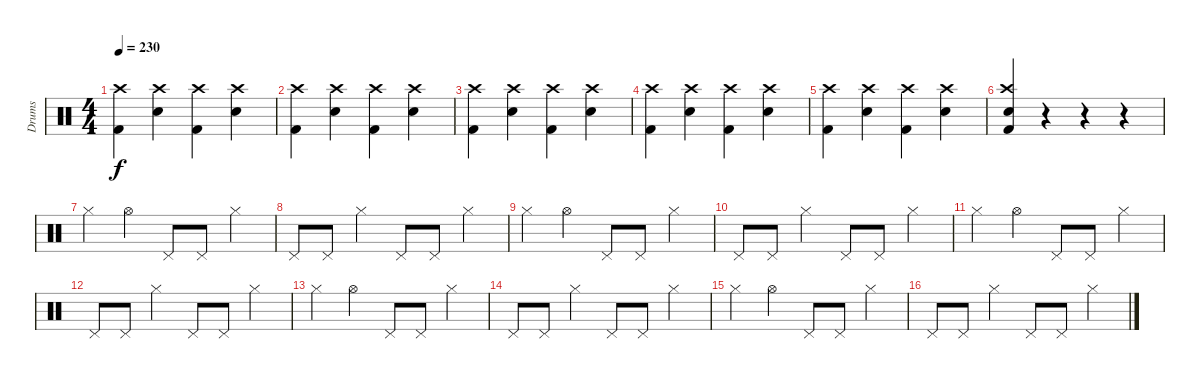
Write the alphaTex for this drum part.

\track ("Drums" "Drums") {instrument percussion}
\staff {score}
\articulation defaults
\ts (4 4)
\tempo 230
\clef neutral
\ks c
("Kick (hit) 2" "Crash high (hit)").4{dy f} ("Snare (hit) 2" "Crash high (hit)").4 ("Kick (hit) 2" "Crash high (hit)").4 ("Snare (hit) 2" "Crash high (hit)").4 |
("Kick (hit) 2" "Crash high (hit)").4 ("Snare (hit) 2" "Crash high (hit)").4 ("Kick (hit) 2" "Crash high (hit)").4 ("Snare (hit) 2" "Crash high (hit)").4 |
("Kick (hit) 2" "Crash high (hit)").4 ("Snare (hit) 2" "Crash high (hit)").4 ("Kick (hit) 2" "Crash high (hit)").4 ("Snare (hit) 2" "Crash high (hit)").4 |
("Kick (hit) 2" "Crash high (hit)").4 ("Snare (hit) 2" "Crash high (hit)").4 ("Kick (hit) 2" "Crash high (hit)").4 ("Snare (hit) 2" "Crash high (hit)").4 |
("Kick (hit) 2" "Crash high (hit)").4 ("Snare (hit) 2" "Crash high (hit)").4 ("Kick (hit) 2" "Crash high (hit)").4 ("Snare (hit) 2" "Crash high (hit)").4 |
("Snare (hit) 2" "Kick (hit) 2" "Crash high (hit)").4 r.4 r.4 r.4 |
"Hi-Hat (closed)".4 "Hi-Hat (open)".4 "Pedal Hi-Hat (hit)".8 "Pedal Hi-Hat (hit)".8 "Hi-Hat (closed)".4 |
"Pedal Hi-Hat (hit)".8 "Pedal Hi-Hat (hit)".8 "Hi-Hat (closed)".4 "Pedal Hi-Hat (hit)".8 "Pedal Hi-Hat (hit)".8 "Hi-Hat (closed)".4 |
"Hi-Hat (closed)".4 "Hi-Hat (open)".4 "Pedal Hi-Hat (hit)".8 "Pedal Hi-Hat (hit)".8 "Hi-Hat (closed)".4 |
"Pedal Hi-Hat (hit)".8 "Pedal Hi-Hat (hit)".8 "Hi-Hat (closed)".4 "Pedal Hi-Hat (hit)".8 "Pedal Hi-Hat (hit)".8 "Hi-Hat (closed)".4 |
"Hi-Hat (closed)".4 "Hi-Hat (open)".4 "Pedal Hi-Hat (hit)".8 "Pedal Hi-Hat (hit)".8 "Hi-Hat (closed)".4 |
"Pedal Hi-Hat (hit)".8 "Pedal Hi-Hat (hit)".8 "Hi-Hat (closed)".4 "Pedal Hi-Hat (hit)".8 "Pedal Hi-Hat (hit)".8 "Hi-Hat (closed)".4 |
"Hi-Hat (closed)".4 "Hi-Hat (open)".4 "Pedal Hi-Hat (hit)".8 "Pedal Hi-Hat (hit)".8 "Hi-Hat (closed)".4 |
"Pedal Hi-Hat (hit)".8 "Pedal Hi-Hat (hit)".8 "Hi-Hat (closed)".4 "Pedal Hi-Hat (hit)".8 "Pedal Hi-Hat (hit)".8 "Hi-Hat (closed)".4 |
"Hi-Hat (closed)".4 "Hi-Hat (open)".4 "Pedal Hi-Hat (hit)".8 "Pedal Hi-Hat (hit)".8 "Hi-Hat (closed)".4 |
"Pedal Hi-Hat (hit)".8 "Pedal Hi-Hat (hit)".8 "Hi-Hat (closed)".4 "Pedal Hi-Hat (hit)".8 "Pedal Hi-Hat (hit)".8 "Hi-Hat (closed)".4
